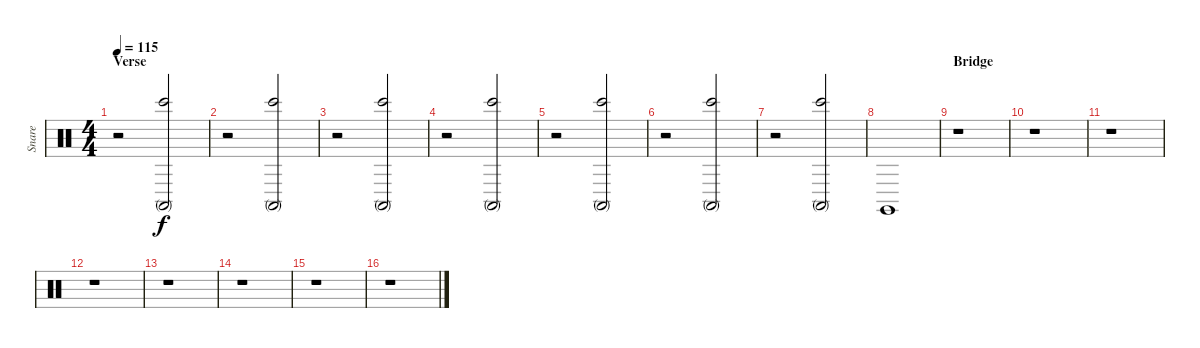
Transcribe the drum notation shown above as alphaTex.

\track ("Snare" "Snare") {instrument percussion}
\staff {score}
\articulation defaults
\ts (4 4)
\section ("" "Verse")
\tempo 115
\clef neutral
\ks c
r.2{dy f} ("Conga high (mute)" "Bongo High (hit)").2 |
r.2 ("Conga high (mute)" "Bongo High (hit)").2 |
r.2 ("Conga high (mute)" "Bongo High (hit)").2 |
r.2 ("Conga high (mute)" "Bongo High (hit)").2 |
r.2 ("Conga high (mute)" "Bongo High (hit)").2 |
r.2 ("Conga high (mute)" "Bongo High (hit)").2 |
r.2 ("Conga high (mute)" "Bongo High (hit)").2 |
"Claves (hit)".1 |
\section ("" "Bridge")
r.1 |
r.1 |
r.1 |
r.1 |
r.1 |
r.1 |
r.1 |
r.1
